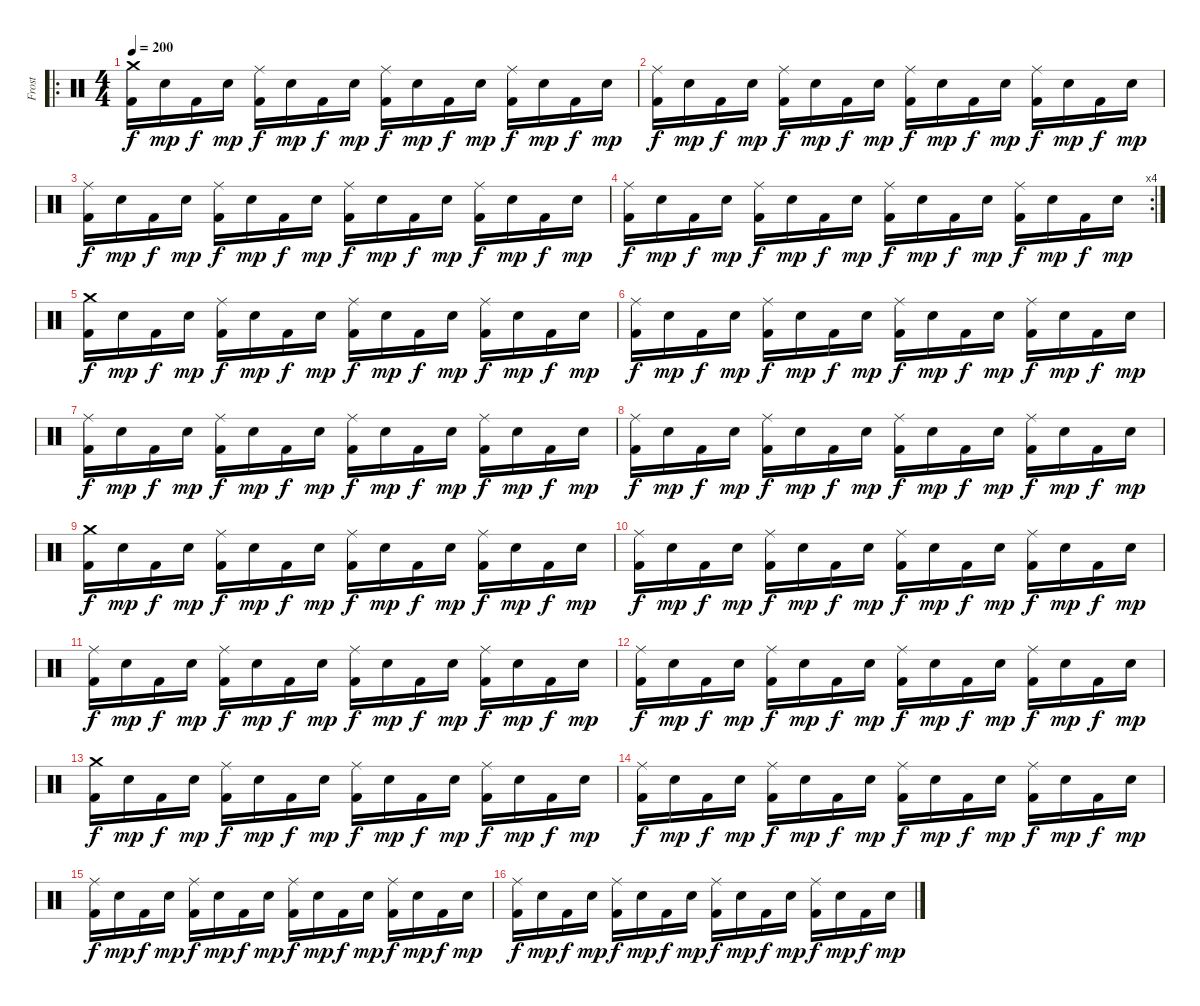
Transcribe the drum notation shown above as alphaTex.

\track ("Frost" "Frost") {instrument percussion}
\staff {score}
\articulation defaults
\ro
\ts (4 4)
\tempo 200
\clef neutral
\ks c
("Crash medium (hit)" "Kick (hit) 2").16{dy f} "Electric Snare (hit)".16{dy mp} "Kick (hit) 2".16{dy f} "Electric Snare (hit)".16{dy mp} ("Ride (middle)" "Kick (hit) 2").16{dy f} "Electric Snare (hit)".16{dy mp} "Kick (hit) 2".16{dy f} "Electric Snare (hit)".16{dy mp} ("Ride (middle)" "Kick (hit) 2").16{dy f} "Electric Snare (hit)".16{dy mp} "Kick (hit) 2".16{dy f} "Electric Snare (hit)".16{dy mp} ("Ride (middle)" "Kick (hit) 2").16{dy f} "Electric Snare (hit)".16{dy mp} "Kick (hit) 2".16{dy f} "Electric Snare (hit)".16{dy mp} |
("Ride (middle)" "Kick (hit) 2").16{dy f} "Electric Snare (hit)".16{dy mp} "Kick (hit) 2".16{dy f} "Electric Snare (hit)".16{dy mp} ("Ride (middle)" "Kick (hit) 2").16{dy f} "Electric Snare (hit)".16{dy mp} "Kick (hit) 2".16{dy f} "Electric Snare (hit)".16{dy mp} ("Ride (middle)" "Kick (hit) 2").16{dy f} "Electric Snare (hit)".16{dy mp} "Kick (hit) 2".16{dy f} "Electric Snare (hit)".16{dy mp} ("Ride (middle)" "Kick (hit) 2").16{dy f} "Electric Snare (hit)".16{dy mp} "Kick (hit) 2".16{dy f} "Electric Snare (hit)".16{dy mp} |
("Ride (middle)" "Kick (hit) 2").16{dy f} "Electric Snare (hit)".16{dy mp} "Kick (hit) 2".16{dy f} "Electric Snare (hit)".16{dy mp} ("Ride (middle)" "Kick (hit) 2").16{dy f} "Electric Snare (hit)".16{dy mp} "Kick (hit) 2".16{dy f} "Electric Snare (hit)".16{dy mp} ("Ride (middle)" "Kick (hit) 2").16{dy f} "Electric Snare (hit)".16{dy mp} "Kick (hit) 2".16{dy f} "Electric Snare (hit)".16{dy mp} ("Ride (middle)" "Kick (hit) 2").16{dy f} "Electric Snare (hit)".16{dy mp} "Kick (hit) 2".16{dy f} "Electric Snare (hit)".16{dy mp} |
\rc 4
("Ride (middle)" "Kick (hit) 2").16{dy f} "Electric Snare (hit)".16{dy mp} "Kick (hit) 2".16{dy f} "Electric Snare (hit)".16{dy mp} ("Ride (middle)" "Kick (hit) 2").16{dy f} "Electric Snare (hit)".16{dy mp} "Kick (hit) 2".16{dy f} "Electric Snare (hit)".16{dy mp} ("Ride (middle)" "Kick (hit) 2").16{dy f} "Electric Snare (hit)".16{dy mp} "Kick (hit) 2".16{dy f} "Electric Snare (hit)".16{dy mp} ("Ride (middle)" "Kick (hit) 2").16{dy f} "Electric Snare (hit)".16{dy mp} "Kick (hit) 2".16{dy f} "Electric Snare (hit)".16{dy mp} |
("Crash medium (hit)" "Kick (hit) 2").16{dy f} "Electric Snare (hit)".16{dy mp} "Kick (hit) 2".16{dy f} "Electric Snare (hit)".16{dy mp} ("Ride (middle)" "Kick (hit) 2").16{dy f} "Electric Snare (hit)".16{dy mp} "Kick (hit) 2".16{dy f} "Electric Snare (hit)".16{dy mp} ("Ride (middle)" "Kick (hit) 2").16{dy f} "Electric Snare (hit)".16{dy mp} "Kick (hit) 2".16{dy f} "Electric Snare (hit)".16{dy mp} ("Ride (middle)" "Kick (hit) 2").16{dy f} "Electric Snare (hit)".16{dy mp} "Kick (hit) 2".16{dy f} "Electric Snare (hit)".16{dy mp} |
("Ride (middle)" "Kick (hit) 2").16{dy f} "Electric Snare (hit)".16{dy mp} "Kick (hit) 2".16{dy f} "Electric Snare (hit)".16{dy mp} ("Ride (middle)" "Kick (hit) 2").16{dy f} "Electric Snare (hit)".16{dy mp} "Kick (hit) 2".16{dy f} "Electric Snare (hit)".16{dy mp} ("Ride (middle)" "Kick (hit) 2").16{dy f} "Electric Snare (hit)".16{dy mp} "Kick (hit) 2".16{dy f} "Electric Snare (hit)".16{dy mp} ("Ride (middle)" "Kick (hit) 2").16{dy f} "Electric Snare (hit)".16{dy mp} "Kick (hit) 2".16{dy f} "Electric Snare (hit)".16{dy mp} |
("Ride (middle)" "Kick (hit) 2").16{dy f} "Electric Snare (hit)".16{dy mp} "Kick (hit) 2".16{dy f} "Electric Snare (hit)".16{dy mp} ("Ride (middle)" "Kick (hit) 2").16{dy f} "Electric Snare (hit)".16{dy mp} "Kick (hit) 2".16{dy f} "Electric Snare (hit)".16{dy mp} ("Ride (middle)" "Kick (hit) 2").16{dy f} "Electric Snare (hit)".16{dy mp} "Kick (hit) 2".16{dy f} "Electric Snare (hit)".16{dy mp} ("Ride (middle)" "Kick (hit) 2").16{dy f} "Electric Snare (hit)".16{dy mp} "Kick (hit) 2".16{dy f} "Electric Snare (hit)".16{dy mp} |
("Ride (middle)" "Kick (hit) 2").16{dy f} "Electric Snare (hit)".16{dy mp} "Kick (hit) 2".16{dy f} "Electric Snare (hit)".16{dy mp} ("Ride (middle)" "Kick (hit) 2").16{dy f} "Electric Snare (hit)".16{dy mp} "Kick (hit) 2".16{dy f} "Electric Snare (hit)".16{dy mp} ("Ride (middle)" "Kick (hit) 2").16{dy f} "Electric Snare (hit)".16{dy mp} "Kick (hit) 2".16{dy f} "Electric Snare (hit)".16{dy mp} ("Ride (middle)" "Kick (hit) 2").16{dy f} "Electric Snare (hit)".16{dy mp} "Kick (hit) 2".16{dy f} "Electric Snare (hit)".16{dy mp} |
("Crash medium (hit)" "Kick (hit) 2").16{dy f} "Electric Snare (hit)".16{dy mp} "Kick (hit) 2".16{dy f} "Electric Snare (hit)".16{dy mp} ("Ride (middle)" "Kick (hit) 2").16{dy f} "Electric Snare (hit)".16{dy mp} "Kick (hit) 2".16{dy f} "Electric Snare (hit)".16{dy mp} ("Ride (middle)" "Kick (hit) 2").16{dy f} "Electric Snare (hit)".16{dy mp} "Kick (hit) 2".16{dy f} "Electric Snare (hit)".16{dy mp} ("Ride (middle)" "Kick (hit) 2").16{dy f} "Electric Snare (hit)".16{dy mp} "Kick (hit) 2".16{dy f} "Electric Snare (hit)".16{dy mp} |
("Ride (middle)" "Kick (hit) 2").16{dy f} "Electric Snare (hit)".16{dy mp} "Kick (hit) 2".16{dy f} "Electric Snare (hit)".16{dy mp} ("Ride (middle)" "Kick (hit) 2").16{dy f} "Electric Snare (hit)".16{dy mp} "Kick (hit) 2".16{dy f} "Electric Snare (hit)".16{dy mp} ("Ride (middle)" "Kick (hit) 2").16{dy f} "Electric Snare (hit)".16{dy mp} "Kick (hit) 2".16{dy f} "Electric Snare (hit)".16{dy mp} ("Ride (middle)" "Kick (hit) 2").16{dy f} "Electric Snare (hit)".16{dy mp} "Kick (hit) 2".16{dy f} "Electric Snare (hit)".16{dy mp} |
("Ride (middle)" "Kick (hit) 2").16{dy f} "Electric Snare (hit)".16{dy mp} "Kick (hit) 2".16{dy f} "Electric Snare (hit)".16{dy mp} ("Ride (middle)" "Kick (hit) 2").16{dy f} "Electric Snare (hit)".16{dy mp} "Kick (hit) 2".16{dy f} "Electric Snare (hit)".16{dy mp} ("Ride (middle)" "Kick (hit) 2").16{dy f} "Electric Snare (hit)".16{dy mp} "Kick (hit) 2".16{dy f} "Electric Snare (hit)".16{dy mp} ("Ride (middle)" "Kick (hit) 2").16{dy f} "Electric Snare (hit)".16{dy mp} "Kick (hit) 2".16{dy f} "Electric Snare (hit)".16{dy mp} |
("Ride (middle)" "Kick (hit) 2").16{dy f} "Electric Snare (hit)".16{dy mp} "Kick (hit) 2".16{dy f} "Electric Snare (hit)".16{dy mp} ("Ride (middle)" "Kick (hit) 2").16{dy f} "Electric Snare (hit)".16{dy mp} "Kick (hit) 2".16{dy f} "Electric Snare (hit)".16{dy mp} ("Ride (middle)" "Kick (hit) 2").16{dy f} "Electric Snare (hit)".16{dy mp} "Kick (hit) 2".16{dy f} "Electric Snare (hit)".16{dy mp} ("Ride (middle)" "Kick (hit) 2").16{dy f} "Electric Snare (hit)".16{dy mp} "Kick (hit) 2".16{dy f} "Electric Snare (hit)".16{dy mp} |
("Crash medium (hit)" "Kick (hit) 2").16{dy f} "Electric Snare (hit)".16{dy mp} "Kick (hit) 2".16{dy f} "Electric Snare (hit)".16{dy mp} ("Ride (middle)" "Kick (hit) 2").16{dy f} "Electric Snare (hit)".16{dy mp} "Kick (hit) 2".16{dy f} "Electric Snare (hit)".16{dy mp} ("Ride (middle)" "Kick (hit) 2").16{dy f} "Electric Snare (hit)".16{dy mp} "Kick (hit) 2".16{dy f} "Electric Snare (hit)".16{dy mp} ("Ride (middle)" "Kick (hit) 2").16{dy f} "Electric Snare (hit)".16{dy mp} "Kick (hit) 2".16{dy f} "Electric Snare (hit)".16{dy mp} |
("Ride (middle)" "Kick (hit) 2").16{dy f} "Electric Snare (hit)".16{dy mp} "Kick (hit) 2".16{dy f} "Electric Snare (hit)".16{dy mp} ("Ride (middle)" "Kick (hit) 2").16{dy f} "Electric Snare (hit)".16{dy mp} "Kick (hit) 2".16{dy f} "Electric Snare (hit)".16{dy mp} ("Ride (middle)" "Kick (hit) 2").16{dy f} "Electric Snare (hit)".16{dy mp} "Kick (hit) 2".16{dy f} "Electric Snare (hit)".16{dy mp} ("Ride (middle)" "Kick (hit) 2").16{dy f} "Electric Snare (hit)".16{dy mp} "Kick (hit) 2".16{dy f} "Electric Snare (hit)".16{dy mp} |
("Ride (middle)" "Kick (hit) 2").16{dy f} "Electric Snare (hit)".16{dy mp} "Kick (hit) 2".16{dy f} "Electric Snare (hit)".16{dy mp} ("Ride (middle)" "Kick (hit) 2").16{dy f} "Electric Snare (hit)".16{dy mp} "Kick (hit) 2".16{dy f} "Electric Snare (hit)".16{dy mp} ("Ride (middle)" "Kick (hit) 2").16{dy f} "Electric Snare (hit)".16{dy mp} "Kick (hit) 2".16{dy f} "Electric Snare (hit)".16{dy mp} ("Ride (middle)" "Kick (hit) 2").16{dy f} "Electric Snare (hit)".16{dy mp} "Kick (hit) 2".16{dy f} "Electric Snare (hit)".16{dy mp} |
("Ride (middle)" "Kick (hit) 2").16{dy f} "Electric Snare (hit)".16{dy mp} "Kick (hit) 2".16{dy f} "Electric Snare (hit)".16{dy mp} ("Ride (middle)" "Kick (hit) 2").16{dy f} "Electric Snare (hit)".16{dy mp} "Kick (hit) 2".16{dy f} "Electric Snare (hit)".16{dy mp} ("Ride (middle)" "Kick (hit) 2").16{dy f} "Electric Snare (hit)".16{dy mp} "Kick (hit) 2".16{dy f} "Electric Snare (hit)".16{dy mp} ("Ride (middle)" "Kick (hit) 2").16{dy f} "Electric Snare (hit)".16{dy mp} "Kick (hit) 2".16{dy f} "Electric Snare (hit)".16{dy mp}
